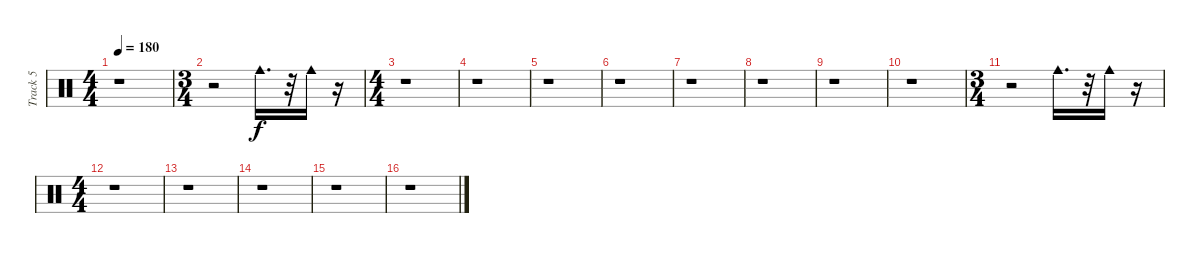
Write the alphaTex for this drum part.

\track ("Track 5" "Track 5") {instrument percussion}
\staff {score}
\articulation defaults
\ts (4 4)
\tempo 180
\clef neutral
\ks c
r.1{dy f} |
\ts (3 4)
r.2 "Cowbell medium (hit)".16{d} r.32 "Cowbell medium (hit)".16 r.16 |
\ts (4 4)
r.1 |
r.1 |
r.1 |
r.1 |
r.1 |
r.1 |
r.1 |
r.1 |
\ts (3 4)
r.2 "Cowbell medium (hit)".16{d} r.32 "Cowbell medium (hit)".16 r.16 |
\ts (4 4)
r.1 |
r.1 |
r.1 |
r.1 |
r.1
